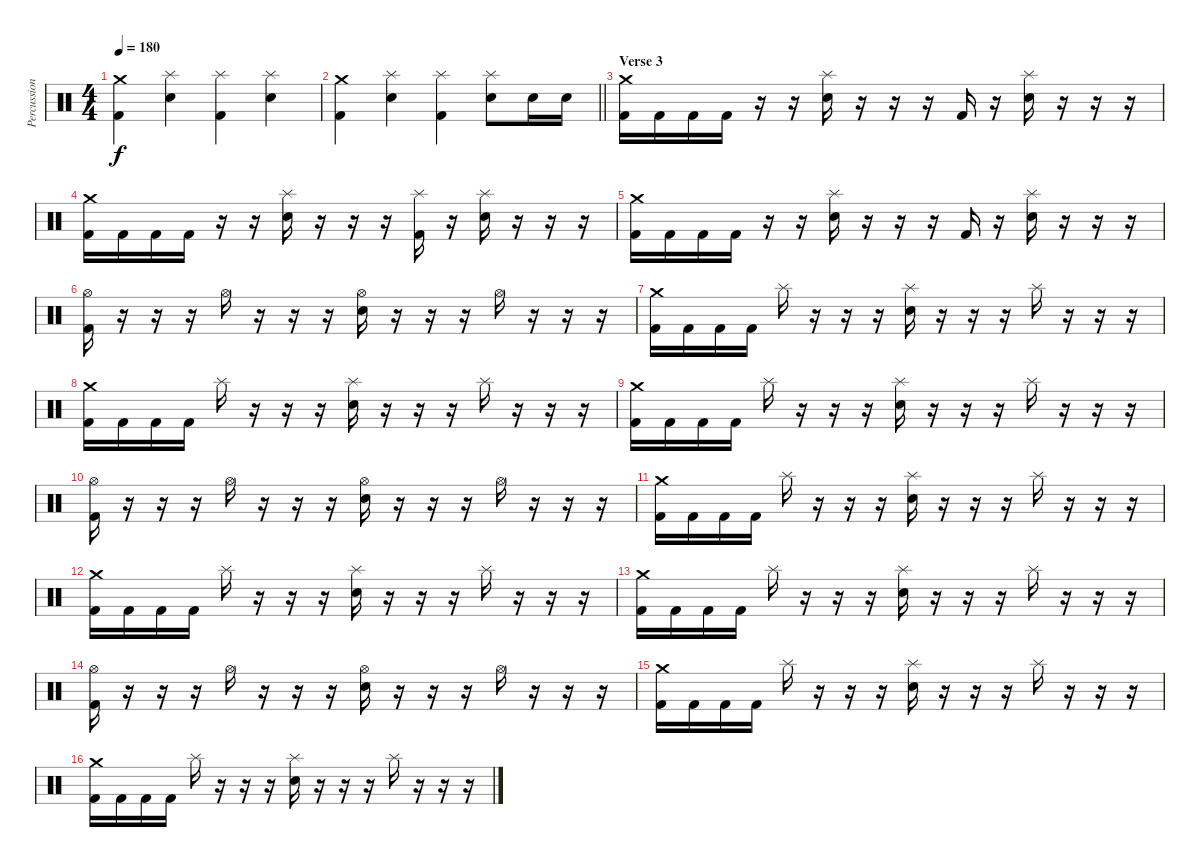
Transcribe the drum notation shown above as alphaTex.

\track ("Percussion" "Percussion") {instrument percussion}
\staff {score}
\articulation defaults
\ts (4 4)
\tempo 180
\clef neutral
\ks c
("Crash medium (hit)" "Kick (hit) 2").4{dy f} ("Splash (hit)" "Electric Snare (hit)").4 ("Splash (hit)" "Kick (hit) 2").4 ("Splash (hit)" "Electric Snare (hit)").4 |
\barLineRight lightlight
("Crash medium (hit)" "Kick (hit) 2").4 ("Splash (hit)" "Electric Snare (hit)").4 ("Splash (hit)" "Kick (hit) 2").4 ("Splash (hit)" "Electric Snare (hit)").8 "Electric Snare (hit)".16 "Electric Snare (hit)".16 |
\section ("" "Verse 3")
("Crash medium (hit)" "Kick (hit) 2").16 "Kick (hit) 2".16 "Kick (hit) 2".16 "Kick (hit) 2".16 r.16 r.16 ("Splash (hit)" "Electric Snare (hit)").16 r.16 r.16 r.16 "Kick (hit) 2".16 r.16 ("Splash (hit)" "Electric Snare (hit)").16 r.16 r.16 r.16 |
("Crash medium (hit)" "Kick (hit) 2").16 "Kick (hit) 2".16 "Kick (hit) 2".16 "Kick (hit) 2".16 r.16 r.16 ("Splash (hit)" "Electric Snare (hit)").16 r.16 r.16 r.16 ("Splash (hit)" "Kick (hit) 2").16 r.16 ("Splash (hit)" "Electric Snare (hit)").16 r.16 r.16 r.16 |
("Crash medium (hit)" "Kick (hit) 2").16 "Kick (hit) 2".16 "Kick (hit) 2".16 "Kick (hit) 2".16 r.16 r.16 ("Splash (hit)" "Electric Snare (hit)").16 r.16 r.16 r.16 "Kick (hit) 2".16 r.16 ("Splash (hit)" "Electric Snare (hit)").16 r.16 r.16 r.16 |
("Hi-Hat (open)" "Kick (hit) 2").16 r.16 r.16 r.16 "Hi-Hat (open)".16 r.16 r.16 r.16 ("Hi-Hat (open)" "Electric Snare (hit)").16 r.16 r.16 r.16 "Hi-Hat (open)".16 r.16 r.16 r.16 |
("Crash medium (hit)" "Kick (hit) 2").16 "Kick (hit) 2".16 "Kick (hit) 2".16 "Kick (hit) 2".16 "Splash (hit)".16 r.16 r.16 r.16 ("Splash (hit)" "Electric Snare (hit)").16 r.16 r.16 r.16 "Splash (hit)".16 r.16 r.16 r.16 |
("Crash medium (hit)" "Kick (hit) 2").16 "Kick (hit) 2".16 "Kick (hit) 2".16 "Kick (hit) 2".16 "Splash (hit)".16 r.16 r.16 r.16 ("Splash (hit)" "Electric Snare (hit)").16 r.16 r.16 r.16 "Splash (hit)".16 r.16 r.16 r.16 |
("Crash medium (hit)" "Kick (hit) 2").16 "Kick (hit) 2".16 "Kick (hit) 2".16 "Kick (hit) 2".16 "Splash (hit)".16 r.16 r.16 r.16 ("Splash (hit)" "Electric Snare (hit)").16 r.16 r.16 r.16 "Splash (hit)".16 r.16 r.16 r.16 |
("Hi-Hat (open)" "Kick (hit) 2").16 r.16 r.16 r.16 "Hi-Hat (open)".16 r.16 r.16 r.16 ("Hi-Hat (open)" "Electric Snare (hit)").16 r.16 r.16 r.16 "Hi-Hat (open)".16 r.16 r.16 r.16 |
("Crash medium (hit)" "Kick (hit) 2").16 "Kick (hit) 2".16 "Kick (hit) 2".16 "Kick (hit) 2".16 "Splash (hit)".16 r.16 r.16 r.16 ("Splash (hit)" "Electric Snare (hit)").16 r.16 r.16 r.16 "Splash (hit)".16 r.16 r.16 r.16 |
("Crash medium (hit)" "Kick (hit) 2").16 "Kick (hit) 2".16 "Kick (hit) 2".16 "Kick (hit) 2".16 "Splash (hit)".16 r.16 r.16 r.16 ("Splash (hit)" "Electric Snare (hit)").16 r.16 r.16 r.16 "Splash (hit)".16 r.16 r.16 r.16 |
("Crash medium (hit)" "Kick (hit) 2").16 "Kick (hit) 2".16 "Kick (hit) 2".16 "Kick (hit) 2".16 "Splash (hit)".16 r.16 r.16 r.16 ("Splash (hit)" "Electric Snare (hit)").16 r.16 r.16 r.16 "Splash (hit)".16 r.16 r.16 r.16 |
("Hi-Hat (open)" "Kick (hit) 2").16 r.16 r.16 r.16 "Hi-Hat (open)".16 r.16 r.16 r.16 ("Hi-Hat (open)" "Electric Snare (hit)").16 r.16 r.16 r.16 "Hi-Hat (open)".16 r.16 r.16 r.16 |
("Crash medium (hit)" "Kick (hit) 2").16 "Kick (hit) 2".16 "Kick (hit) 2".16 "Kick (hit) 2".16 "Splash (hit)".16 r.16 r.16 r.16 ("Splash (hit)" "Electric Snare (hit)").16 r.16 r.16 r.16 "Splash (hit)".16 r.16 r.16 r.16 |
("Crash medium (hit)" "Kick (hit) 2").16 "Kick (hit) 2".16 "Kick (hit) 2".16 "Kick (hit) 2".16 "Splash (hit)".16 r.16 r.16 r.16 ("Splash (hit)" "Electric Snare (hit)").16 r.16 r.16 r.16 "Splash (hit)".16 r.16 r.16 r.16
